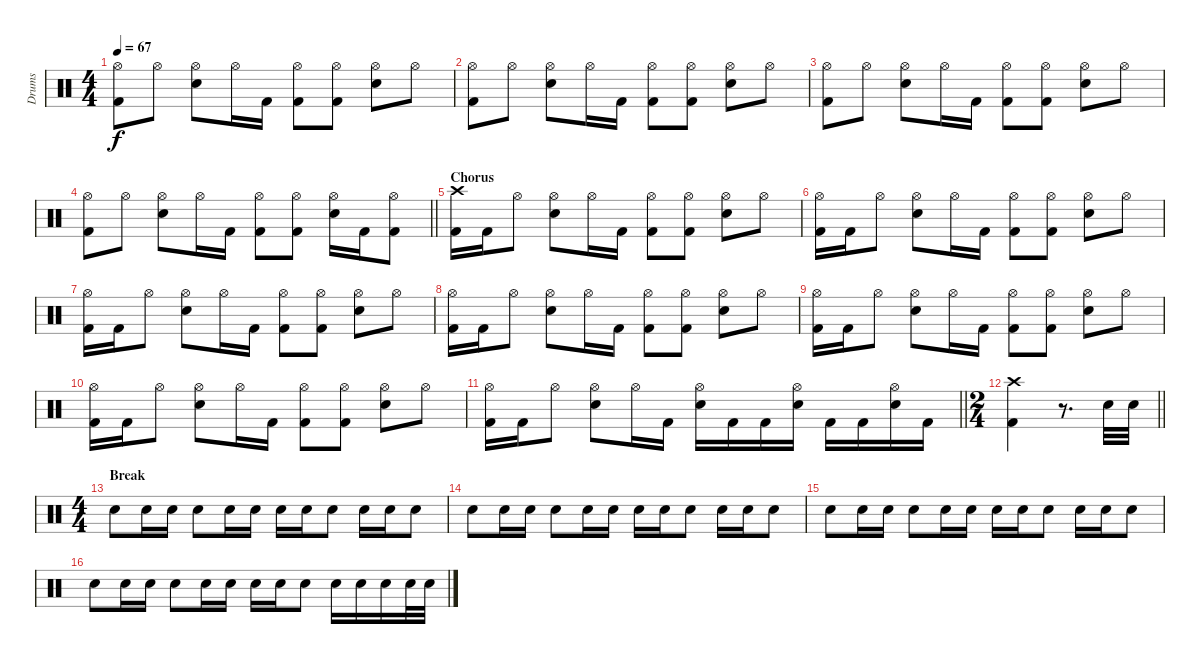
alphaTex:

\track ("Drums" "Drums") {instrument percussion}
\staff {score}
\articulation defaults
\ts (4 4)
\tempo 67
\clef neutral
\ks c
("Hi-Hat (open)" "Kick (hit) 2").8{dy f} "Hi-Hat (open)".8 ("Hi-Hat (open)" "Snare (hit) 2").8 "Hi-Hat (open)".16 "Kick (hit) 2".16 ("Hi-Hat (open)" "Kick (hit) 2").8 ("Kick (hit) 2" "Hi-Hat (open)").8 ("Hi-Hat (open)" "Snare (hit) 2").8 "Hi-Hat (open)".8 |
("Hi-Hat (open)" "Kick (hit) 2").8 "Hi-Hat (open)".8 ("Hi-Hat (open)" "Snare (hit) 2").8 "Hi-Hat (open)".16 "Kick (hit) 2".16 ("Hi-Hat (open)" "Kick (hit) 2").8 ("Kick (hit) 2" "Hi-Hat (open)").8 ("Hi-Hat (open)" "Snare (hit) 2").8 "Hi-Hat (open)".8 |
("Hi-Hat (open)" "Kick (hit) 2").8 "Hi-Hat (open)".8 ("Hi-Hat (open)" "Snare (hit) 2").8 "Hi-Hat (open)".16 "Kick (hit) 2".16 ("Hi-Hat (open)" "Kick (hit) 2").8 ("Kick (hit) 2" "Hi-Hat (open)").8 ("Hi-Hat (open)" "Snare (hit) 2").8 "Hi-Hat (open)".8 |
\barLineRight lightlight
("Hi-Hat (open)" "Kick (hit) 2").8 "Hi-Hat (open)".8 ("Hi-Hat (open)" "Snare (hit) 2").8 "Hi-Hat (open)".16 "Kick (hit) 2".16 ("Hi-Hat (open)" "Kick (hit) 2").8 ("Kick (hit) 2" "Hi-Hat (open)").8 ("Hi-Hat (open)" "Snare (hit) 2").16 "Kick (hit) 2".16 ("Kick (hit) 2" "Hi-Hat (open)").8 |
\section ("" "Chorus")
("Crash high (hit)" "Kick (hit) 2").16 "Kick (hit) 2".16 "Hi-Hat (open)".8 ("Hi-Hat (open)" "Snare (hit) 2").8 "Hi-Hat (open)".16 "Kick (hit) 2".16 ("Hi-Hat (open)" "Kick (hit) 2").8 ("Kick (hit) 2" "Hi-Hat (open)").8 ("Hi-Hat (open)" "Snare (hit) 2").8 "Hi-Hat (open)".8 |
("Hi-Hat (open)" "Kick (hit) 2").16 "Kick (hit) 2".16 "Hi-Hat (open)".8 ("Hi-Hat (open)" "Snare (hit) 2").8 "Hi-Hat (open)".16 "Kick (hit) 2".16 ("Hi-Hat (open)" "Kick (hit) 2").8 ("Kick (hit) 2" "Hi-Hat (open)").8 ("Hi-Hat (open)" "Snare (hit) 2").8 "Hi-Hat (open)".8 |
("Hi-Hat (open)" "Kick (hit) 2").16 "Kick (hit) 2".16 "Hi-Hat (open)".8 ("Hi-Hat (open)" "Snare (hit) 2").8 "Hi-Hat (open)".16 "Kick (hit) 2".16 ("Hi-Hat (open)" "Kick (hit) 2").8 ("Kick (hit) 2" "Hi-Hat (open)").8 ("Hi-Hat (open)" "Snare (hit) 2").8 "Hi-Hat (open)".8 |
("Hi-Hat (open)" "Kick (hit) 2").16 "Kick (hit) 2".16 "Hi-Hat (open)".8 ("Hi-Hat (open)" "Snare (hit) 2").8 "Hi-Hat (open)".16 "Kick (hit) 2".16 ("Hi-Hat (open)" "Kick (hit) 2").8 ("Kick (hit) 2" "Hi-Hat (open)").8 ("Hi-Hat (open)" "Snare (hit) 2").8 "Hi-Hat (open)".8 |
("Hi-Hat (open)" "Kick (hit) 2").16 "Kick (hit) 2".16 "Hi-Hat (open)".8 ("Hi-Hat (open)" "Snare (hit) 2").8 "Hi-Hat (open)".16 "Kick (hit) 2".16 ("Hi-Hat (open)" "Kick (hit) 2").8 ("Kick (hit) 2" "Hi-Hat (open)").8 ("Hi-Hat (open)" "Snare (hit) 2").8 "Hi-Hat (open)".8 |
("Hi-Hat (open)" "Kick (hit) 2").16 "Kick (hit) 2".16 "Hi-Hat (open)".8 ("Hi-Hat (open)" "Snare (hit) 2").8 "Hi-Hat (open)".16 "Kick (hit) 2".16 ("Hi-Hat (open)" "Kick (hit) 2").8 ("Kick (hit) 2" "Hi-Hat (open)").8 ("Hi-Hat (open)" "Snare (hit) 2").8 "Hi-Hat (open)".8 |
\barLineRight lightlight
("Hi-Hat (open)" "Kick (hit) 2").16 "Kick (hit) 2".16 "Hi-Hat (open)".8 ("Hi-Hat (open)" "Snare (hit) 2").8 "Hi-Hat (open)".16 "Kick (hit) 2".16 ("Snare (hit) 2" "Hi-Hat (open)").16 "Kick (hit) 2".16 "Kick (hit) 2".16 ("Snare (hit) 2" "Hi-Hat (open)").16 "Kick (hit) 2".16 "Kick (hit) 2".16 ("Snare (hit) 2" "Hi-Hat (open)").16 "Kick (hit) 2".16 |
\ts (2 4)
\barLineRight lightlight
("Crash high (hit)" "Kick (hit) 2").4 r.8{d} "Snare (hit) 2".32 "Snare (hit) 2".32 |
\ts (4 4)
\section ("" "Break")
"Snare (hit) 2".8 "Snare (hit) 2".16 "Snare (hit) 2".16 "Snare (hit) 2".8 "Snare (hit) 2".16 "Snare (hit) 2".16 "Snare (hit) 2".16 "Snare (hit) 2".16 "Snare (hit) 2".8 "Snare (hit) 2".16 "Snare (hit) 2".16 "Snare (hit) 2".8 |
"Snare (hit) 2".8 "Snare (hit) 2".16 "Snare (hit) 2".16 "Snare (hit) 2".8 "Snare (hit) 2".16 "Snare (hit) 2".16 "Snare (hit) 2".16 "Snare (hit) 2".16 "Snare (hit) 2".8 "Snare (hit) 2".16 "Snare (hit) 2".16 "Snare (hit) 2".8 |
"Snare (hit) 2".8 "Snare (hit) 2".16 "Snare (hit) 2".16 "Snare (hit) 2".8 "Snare (hit) 2".16 "Snare (hit) 2".16 "Snare (hit) 2".16 "Snare (hit) 2".16 "Snare (hit) 2".8 "Snare (hit) 2".16 "Snare (hit) 2".16 "Snare (hit) 2".8 |
"Snare (hit) 2".8 "Snare (hit) 2".16 "Snare (hit) 2".16 "Snare (hit) 2".8 "Snare (hit) 2".16 "Snare (hit) 2".16 "Snare (hit) 2".16 "Snare (hit) 2".16 "Snare (hit) 2".8 "Snare (hit) 2".16 "Snare (hit) 2".16 "Snare (hit) 2".16 "Snare (hit) 2".32 "Snare (hit) 2".32
